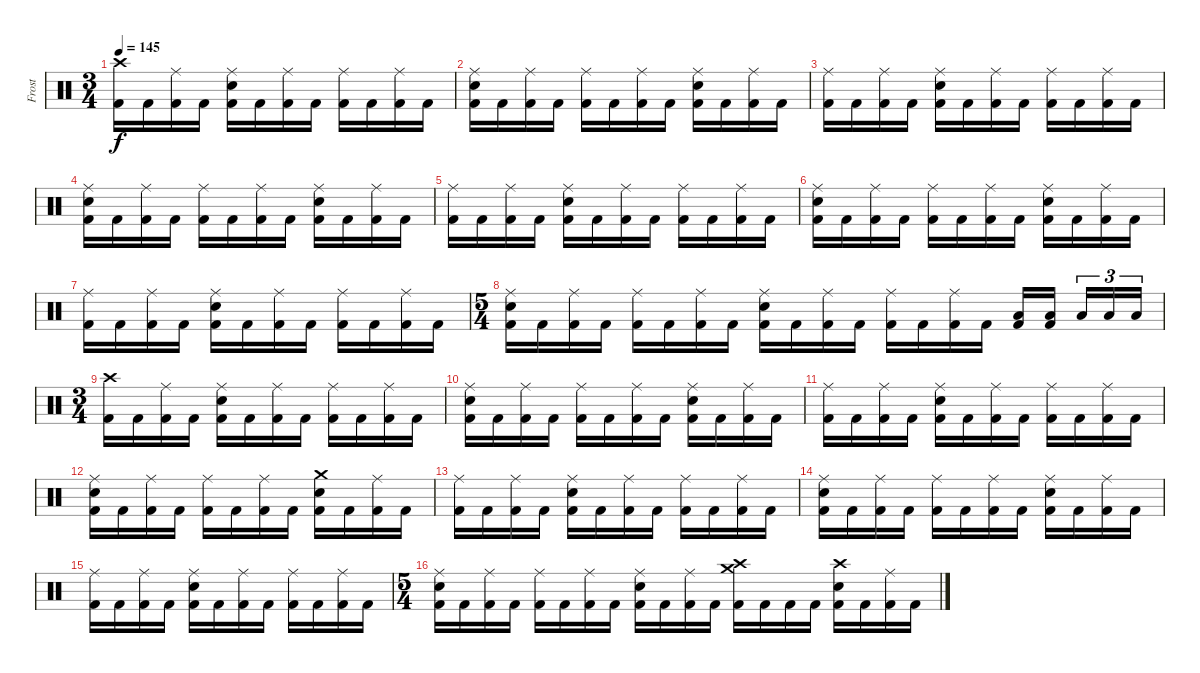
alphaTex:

\track ("Frost" "Frost") {instrument percussion}
\staff {score}
\articulation defaults
\ts (3 4)
\tempo 145
\clef neutral
\ks c
("Crash high (hit)" "Kick (hit) 2").16{dy f} "Kick (hit) 2".16 ("Ride (middle)" "Kick (hit) 2").16 "Kick (hit) 2".16 ("Ride (middle)" "Electric Snare (hit)" "Kick (hit) 2").16 "Kick (hit) 2".16 ("Ride (middle)" "Kick (hit) 2").16 "Kick (hit) 2".16 ("Ride (middle)" "Kick (hit) 2").16 "Kick (hit) 2".16 ("Ride (middle)" "Kick (hit) 2").16 "Kick (hit) 2".16 |
("Ride (middle)" "Electric Snare (hit)" "Kick (hit) 2").16 "Kick (hit) 2".16 ("Ride (middle)" "Kick (hit) 2").16 "Kick (hit) 2".16 ("Ride (middle)" "Kick (hit) 2").16 "Kick (hit) 2".16 ("Ride (middle)" "Kick (hit) 2").16 "Kick (hit) 2".16 ("Ride (middle)" "Electric Snare (hit)" "Kick (hit) 2").16 "Kick (hit) 2".16 ("Ride (middle)" "Kick (hit) 2").16 "Kick (hit) 2".16 |
("Ride (middle)" "Kick (hit) 2").16 "Kick (hit) 2".16 ("Ride (middle)" "Kick (hit) 2").16 "Kick (hit) 2".16 ("Ride (middle)" "Electric Snare (hit)" "Kick (hit) 2").16 "Kick (hit) 2".16 ("Ride (middle)" "Kick (hit) 2").16 "Kick (hit) 2".16 ("Ride (middle)" "Kick (hit) 2").16 "Kick (hit) 2".16 ("Ride (middle)" "Kick (hit) 2").16 "Kick (hit) 2".16 |
("Ride (middle)" "Electric Snare (hit)" "Kick (hit) 2").16 "Kick (hit) 2".16 ("Ride (middle)" "Kick (hit) 2").16 "Kick (hit) 2".16 ("Ride (middle)" "Kick (hit) 2").16 "Kick (hit) 2".16 ("Ride (middle)" "Kick (hit) 2").16 "Kick (hit) 2".16 ("Ride (middle)" "Electric Snare (hit)" "Kick (hit) 2").16 "Kick (hit) 2".16 ("Ride (middle)" "Kick (hit) 2").16 "Kick (hit) 2".16 |
("Ride (middle)" "Kick (hit) 2").16 "Kick (hit) 2".16 ("Ride (middle)" "Kick (hit) 2").16 "Kick (hit) 2".16 ("Ride (middle)" "Electric Snare (hit)" "Kick (hit) 2").16 "Kick (hit) 2".16 ("Ride (middle)" "Kick (hit) 2").16 "Kick (hit) 2".16 ("Ride (middle)" "Kick (hit) 2").16 "Kick (hit) 2".16 ("Ride (middle)" "Kick (hit) 2").16 "Kick (hit) 2".16 |
("Ride (middle)" "Electric Snare (hit)" "Kick (hit) 2").16 "Kick (hit) 2".16 ("Ride (middle)" "Kick (hit) 2").16 "Kick (hit) 2".16 ("Ride (middle)" "Kick (hit) 2").16 "Kick (hit) 2".16 ("Ride (middle)" "Kick (hit) 2").16 "Kick (hit) 2".16 ("Ride (middle)" "Electric Snare (hit)" "Kick (hit) 2").16 "Kick (hit) 2".16 ("Ride (middle)" "Kick (hit) 2").16 "Kick (hit) 2".16 |
("Ride (middle)" "Kick (hit) 2").16 "Kick (hit) 2".16 ("Ride (middle)" "Kick (hit) 2").16 "Kick (hit) 2".16 ("Ride (middle)" "Electric Snare (hit)" "Kick (hit) 2").16 "Kick (hit) 2".16 ("Ride (middle)" "Kick (hit) 2").16 "Kick (hit) 2".16 ("Ride (middle)" "Kick (hit) 2").16 "Kick (hit) 2".16 ("Ride (middle)" "Kick (hit) 2").16 "Kick (hit) 2".16 |
\ts (5 4)
("Ride (middle)" "Electric Snare (hit)" "Kick (hit) 2").16 "Kick (hit) 2".16 ("Ride (middle)" "Kick (hit) 2").16 "Kick (hit) 2".16 ("Ride (middle)" "Kick (hit) 2").16 "Kick (hit) 2".16 ("Ride (middle)" "Kick (hit) 2").16 "Kick (hit) 2".16 ("Ride (middle)" "Electric Snare (hit)" "Kick (hit) 2").16 "Kick (hit) 2".16 ("Ride (middle)" "Kick (hit) 2").16 "Kick (hit) 2".16 ("Ride (middle)" "Kick (hit) 2").16 "Kick (hit) 2".16 ("Ride (middle)" "Kick (hit) 2").16 "Kick (hit) 2".16 ("Low Tom (hit)" "Kick (hit) 2").16 ("Low Tom (hit)" "Kick (hit) 2").16 "Low Tom (hit)".16{tu (3 2)} "Low Tom (hit)".16{tu (3 2)} "Low Tom (hit)".16{tu (3 2)} |
\ts (3 4)
("Crash high (hit)" "Kick (hit) 2").16 "Kick (hit) 2".16 ("Ride (middle)" "Kick (hit) 2").16 "Kick (hit) 2".16 ("Ride (middle)" "Electric Snare (hit)" "Kick (hit) 2").16 "Kick (hit) 2".16 ("Ride (middle)" "Kick (hit) 2").16 "Kick (hit) 2".16 ("Ride (middle)" "Kick (hit) 2").16 "Kick (hit) 2".16 ("Ride (middle)" "Kick (hit) 2").16 "Kick (hit) 2".16 |
("Ride (middle)" "Electric Snare (hit)" "Kick (hit) 2").16 "Kick (hit) 2".16 ("Ride (middle)" "Kick (hit) 2").16 "Kick (hit) 2".16 ("Ride (middle)" "Kick (hit) 2").16 "Kick (hit) 2".16 ("Ride (middle)" "Kick (hit) 2").16 "Kick (hit) 2".16 ("Ride (middle)" "Electric Snare (hit)" "Kick (hit) 2").16 "Kick (hit) 2".16 ("Ride (middle)" "Kick (hit) 2").16 "Kick (hit) 2".16 |
("Ride (middle)" "Kick (hit) 2").16 "Kick (hit) 2".16 ("Ride (middle)" "Kick (hit) 2").16 "Kick (hit) 2".16 ("Ride (middle)" "Electric Snare (hit)" "Kick (hit) 2").16 "Kick (hit) 2".16 ("Ride (middle)" "Kick (hit) 2").16 "Kick (hit) 2".16 ("Ride (middle)" "Kick (hit) 2").16 "Kick (hit) 2".16 ("Ride (middle)" "Kick (hit) 2").16 "Kick (hit) 2".16 |
("Ride (middle)" "Electric Snare (hit)" "Kick (hit) 2").16 "Kick (hit) 2".16 ("Ride (middle)" "Kick (hit) 2").16 "Kick (hit) 2".16 ("Ride (middle)" "Kick (hit) 2").16 "Kick (hit) 2".16 ("Ride (middle)" "Kick (hit) 2").16 "Kick (hit) 2".16 ("Crash medium (hit)" "Electric Snare (hit)" "Kick (hit) 2").16 "Kick (hit) 2".16 ("Ride (middle)" "Kick (hit) 2").16 "Kick (hit) 2".16 |
("Ride (middle)" "Kick (hit) 2").16 "Kick (hit) 2".16 ("Ride (middle)" "Kick (hit) 2").16 "Kick (hit) 2".16 ("Ride (middle)" "Electric Snare (hit)" "Kick (hit) 2").16 "Kick (hit) 2".16 ("Ride (middle)" "Kick (hit) 2").16 "Kick (hit) 2".16 ("Ride (middle)" "Kick (hit) 2").16 "Kick (hit) 2".16 ("Ride (middle)" "Kick (hit) 2").16 "Kick (hit) 2".16 |
("Ride (middle)" "Electric Snare (hit)" "Kick (hit) 2").16 "Kick (hit) 2".16 ("Ride (middle)" "Kick (hit) 2").16 "Kick (hit) 2".16 ("Ride (middle)" "Kick (hit) 2").16 "Kick (hit) 2".16 ("Ride (middle)" "Kick (hit) 2").16 "Kick (hit) 2".16 ("Ride (middle)" "Electric Snare (hit)" "Kick (hit) 2").16 "Kick (hit) 2".16 ("Ride (middle)" "Kick (hit) 2").16 "Kick (hit) 2".16 |
("Ride (middle)" "Kick (hit) 2").16 "Kick (hit) 2".16 ("Ride (middle)" "Kick (hit) 2").16 "Kick (hit) 2".16 ("Ride (middle)" "Electric Snare (hit)" "Kick (hit) 2").16 "Kick (hit) 2".16 ("Ride (middle)" "Kick (hit) 2").16 "Kick (hit) 2".16 ("Ride (middle)" "Kick (hit) 2").16 "Kick (hit) 2".16 ("Ride (middle)" "Kick (hit) 2").16 "Kick (hit) 2".16 |
\ts (5 4)
("Ride (middle)" "Electric Snare (hit)" "Kick (hit) 2").16 "Kick (hit) 2".16 ("Ride (middle)" "Kick (hit) 2").16 "Kick (hit) 2".16 ("Ride (middle)" "Kick (hit) 2").16 "Kick (hit) 2".16 ("Ride (middle)" "Kick (hit) 2").16 "Kick (hit) 2".16 ("Ride (middle)" "Electric Snare (hit)" "Kick (hit) 2").16 "Kick (hit) 2".16 ("Ride (middle)" "Kick (hit) 2").16 "Kick (hit) 2".16 ("Crash high (hit)" "Crash medium (hit)" "Kick (hit) 2").16 "Kick (hit) 2".16 "Kick (hit) 2".16 "Kick (hit) 2".16 ("Crash high (hit)" "Electric Snare (hit)" "Kick (hit) 2").16 "Kick (hit) 2".16 ("Ride (middle)" "Kick (hit) 2").16 "Kick (hit) 2".16
